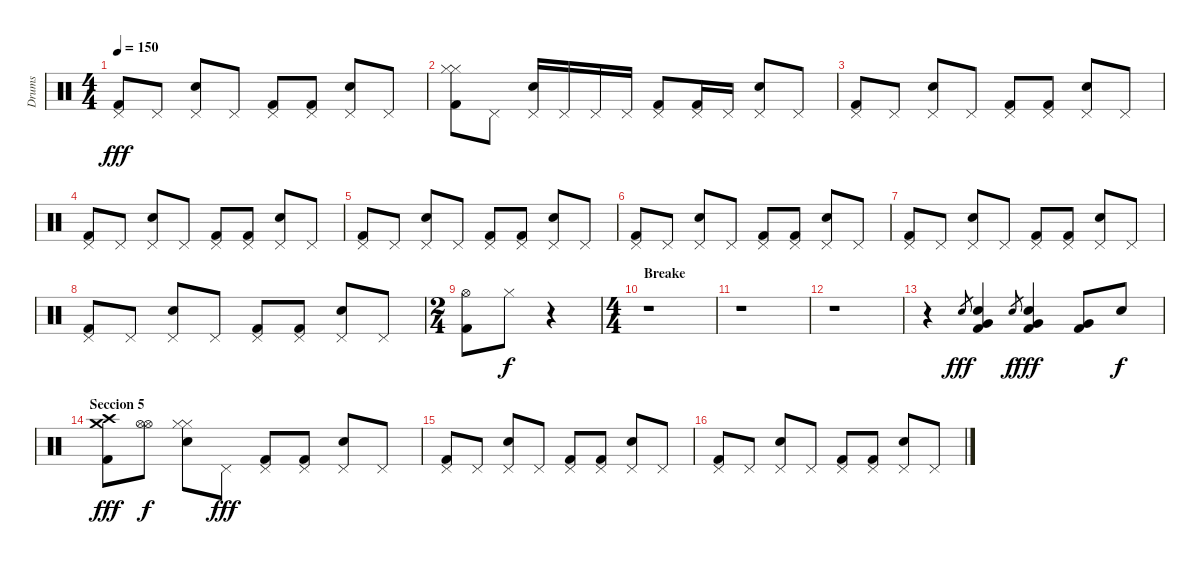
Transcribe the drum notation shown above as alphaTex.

\track ("Drums" "Drums") {instrument percussion}
\staff {score}
\articulation defaults
\ts (4 4)
\tempo 150
\clef neutral
\ks c
("Pedal Hi-Hat (hit)" "Kick (hit) 2").8{dy fff} "Pedal Hi-Hat (hit)".8 ("Pedal Hi-Hat (hit)" "Snare (hit) 2").8 "Pedal Hi-Hat (hit)".8 ("Pedal Hi-Hat (hit)" "Kick (hit) 2").8 ("Pedal Hi-Hat (hit)" "Kick (hit) 2").8 ("Pedal Hi-Hat (hit)" "Snare (hit) 2").8 "Pedal Hi-Hat (hit)".8 |
("Hi-Hat (closed)" "Hi-Hat (closed)" "Kick (hit) 2").8 "Pedal Hi-Hat (hit)".8 ("Pedal Hi-Hat (hit)" "Snare (hit) 2").16 "Pedal Hi-Hat (hit)".16 "Pedal Hi-Hat (hit)".16 "Pedal Hi-Hat (hit)".16 ("Pedal Hi-Hat (hit)" "Kick (hit) 2").8 ("Pedal Hi-Hat (hit)" "Kick (hit) 2").16 "Pedal Hi-Hat (hit)".16 ("Pedal Hi-Hat (hit)" "Snare (hit) 2").8 "Pedal Hi-Hat (hit)".8 |
("Pedal Hi-Hat (hit)" "Kick (hit) 2").8 "Pedal Hi-Hat (hit)".8 ("Pedal Hi-Hat (hit)" "Snare (hit) 2").8 "Pedal Hi-Hat (hit)".8 ("Pedal Hi-Hat (hit)" "Kick (hit) 2").8 ("Pedal Hi-Hat (hit)" "Kick (hit) 2").8 ("Pedal Hi-Hat (hit)" "Snare (hit) 2").8 "Pedal Hi-Hat (hit)".8 |
("Pedal Hi-Hat (hit)" "Kick (hit) 2").8 "Pedal Hi-Hat (hit)".8 ("Pedal Hi-Hat (hit)" "Snare (hit) 2").8 "Pedal Hi-Hat (hit)".8 ("Pedal Hi-Hat (hit)" "Kick (hit) 2").8 ("Pedal Hi-Hat (hit)" "Kick (hit) 2").8 ("Pedal Hi-Hat (hit)" "Snare (hit) 2").8 "Pedal Hi-Hat (hit)".8 |
("Pedal Hi-Hat (hit)" "Kick (hit) 2").8 "Pedal Hi-Hat (hit)".8 ("Pedal Hi-Hat (hit)" "Snare (hit) 2").8 "Pedal Hi-Hat (hit)".8 ("Pedal Hi-Hat (hit)" "Kick (hit) 2").8 ("Pedal Hi-Hat (hit)" "Kick (hit) 2").8 ("Pedal Hi-Hat (hit)" "Snare (hit) 2").8 "Pedal Hi-Hat (hit)".8 |
("Pedal Hi-Hat (hit)" "Kick (hit) 2").8 "Pedal Hi-Hat (hit)".8 ("Pedal Hi-Hat (hit)" "Snare (hit) 2").8 "Pedal Hi-Hat (hit)".8 ("Pedal Hi-Hat (hit)" "Kick (hit) 2").8 ("Pedal Hi-Hat (hit)" "Kick (hit) 2").8 ("Pedal Hi-Hat (hit)" "Snare (hit) 2").8 "Pedal Hi-Hat (hit)".8 |
("Pedal Hi-Hat (hit)" "Kick (hit) 2").8 "Pedal Hi-Hat (hit)".8 ("Pedal Hi-Hat (hit)" "Snare (hit) 2").8 "Pedal Hi-Hat (hit)".8 ("Pedal Hi-Hat (hit)" "Kick (hit) 2").8 ("Pedal Hi-Hat (hit)" "Kick (hit) 2").8 ("Pedal Hi-Hat (hit)" "Snare (hit) 2").8 "Pedal Hi-Hat (hit)".8 |
("Pedal Hi-Hat (hit)" "Kick (hit) 2").8 "Pedal Hi-Hat (hit)".8 ("Pedal Hi-Hat (hit)" "Snare (hit) 2").8 "Pedal Hi-Hat (hit)".8 ("Pedal Hi-Hat (hit)" "Kick (hit) 2").8 ("Pedal Hi-Hat (hit)" "Kick (hit) 2").8 ("Pedal Hi-Hat (hit)" "Snare (hit) 2").8 "Pedal Hi-Hat (hit)".8 |
\ts (2 4)
("Hi-Hat (open)" "Kick (hit) 2").8 "Hi-Hat (closed)".8{dy f} r.4 |
\ts (4 4)
\section ("" "Breake")
r.1 |
r.1 |
r.1 |
r.4 "Snare (hit) 2".8{gr dy fff} ("Snare (hit) 2" "Very Low Tom (hit)" "Kick (hit) 2").4 "Snare (hit) 2".8{gr dy f} ("Snare (hit) 2" "Very Low Tom (hit)" "Kick (hit) 2").4{dy fff} ("Very Low Tom (hit)" "Kick (hit) 2").8 "Snare (hit) 2".8{dy f} |
\section ("" "Seccion 5")
("Crash medium (hit)" "Crash high (hit)" "Kick (hit) 2").8{dy fff} ("Hi-Hat (open)" "Hi-Hat (open)").8{dy f} ("Hi-Hat (closed)" "Hi-Hat (closed)" "Snare (hit) 2").8 "Pedal Hi-Hat (hit)".8{dy fff} ("Pedal Hi-Hat (hit)" "Kick (hit) 2").8 ("Pedal Hi-Hat (hit)" "Kick (hit) 2").8 ("Pedal Hi-Hat (hit)" "Snare (hit) 2").8 "Pedal Hi-Hat (hit)".8 |
("Pedal Hi-Hat (hit)" "Kick (hit) 2").8 "Pedal Hi-Hat (hit)".8 ("Pedal Hi-Hat (hit)" "Snare (hit) 2").8 "Pedal Hi-Hat (hit)".8 ("Pedal Hi-Hat (hit)" "Kick (hit) 2").8 ("Pedal Hi-Hat (hit)" "Kick (hit) 2").8 ("Pedal Hi-Hat (hit)" "Snare (hit) 2").8 "Pedal Hi-Hat (hit)".8 |
("Pedal Hi-Hat (hit)" "Kick (hit) 2").8 "Pedal Hi-Hat (hit)".8 ("Pedal Hi-Hat (hit)" "Snare (hit) 2").8 "Pedal Hi-Hat (hit)".8 ("Pedal Hi-Hat (hit)" "Kick (hit) 2").8 ("Pedal Hi-Hat (hit)" "Kick (hit) 2").8 ("Pedal Hi-Hat (hit)" "Snare (hit) 2").8 "Pedal Hi-Hat (hit)".8
